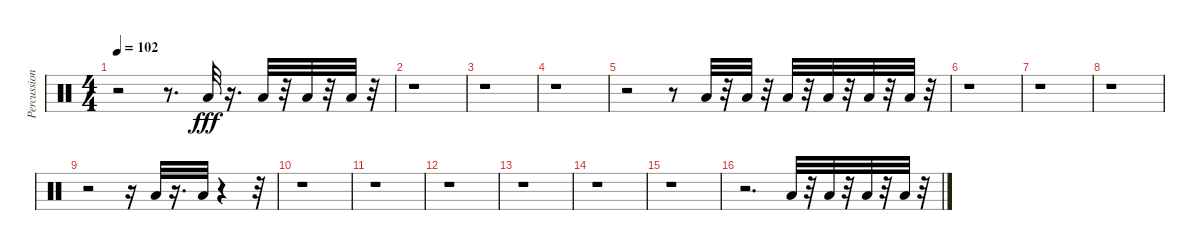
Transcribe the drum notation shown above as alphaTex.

\track ("Percussion" "Percussion") {instrument percussion}
\staff {score}
\articulation defaults
\ts (4 4)
\tempo 102
\clef neutral
\ks c
r.2{dy fff} r.8{d} "Low Tom (hit)".32 r.16{d} "Low Tom (hit)".32 r.32 "Low Floor Tom (hit)".32 r.32 "Low Floor Tom (hit)".32 r.32 |
r.1 |
r.1 |
r.1 |
r.2 r.8 "Low Tom (hit)".32 r.32 "Low Tom (hit)".32 r.32 "Low Tom (hit)".32 r.32 "Low Floor Tom (hit)".32 r.32 "Low Floor Tom (hit)".32 r.32 "Low Floor Tom (hit)".32 r.32 |
r.1 |
r.1 |
r.1 |
r.2 r.16 "Low Tom (hit)".32 r.16{d} "Low Floor Tom (hit)".32 r.4 r.32 |
r.1 |
r.1 |
r.1 |
r.1 |
r.1 |
r.1 |
r.2{d} "Low Tom (hit)".32 r.32 "Low Tom (hit)".32 r.32 "Low Floor Tom (hit)".32 r.32 "Low Floor Tom (hit)".32 r.32
